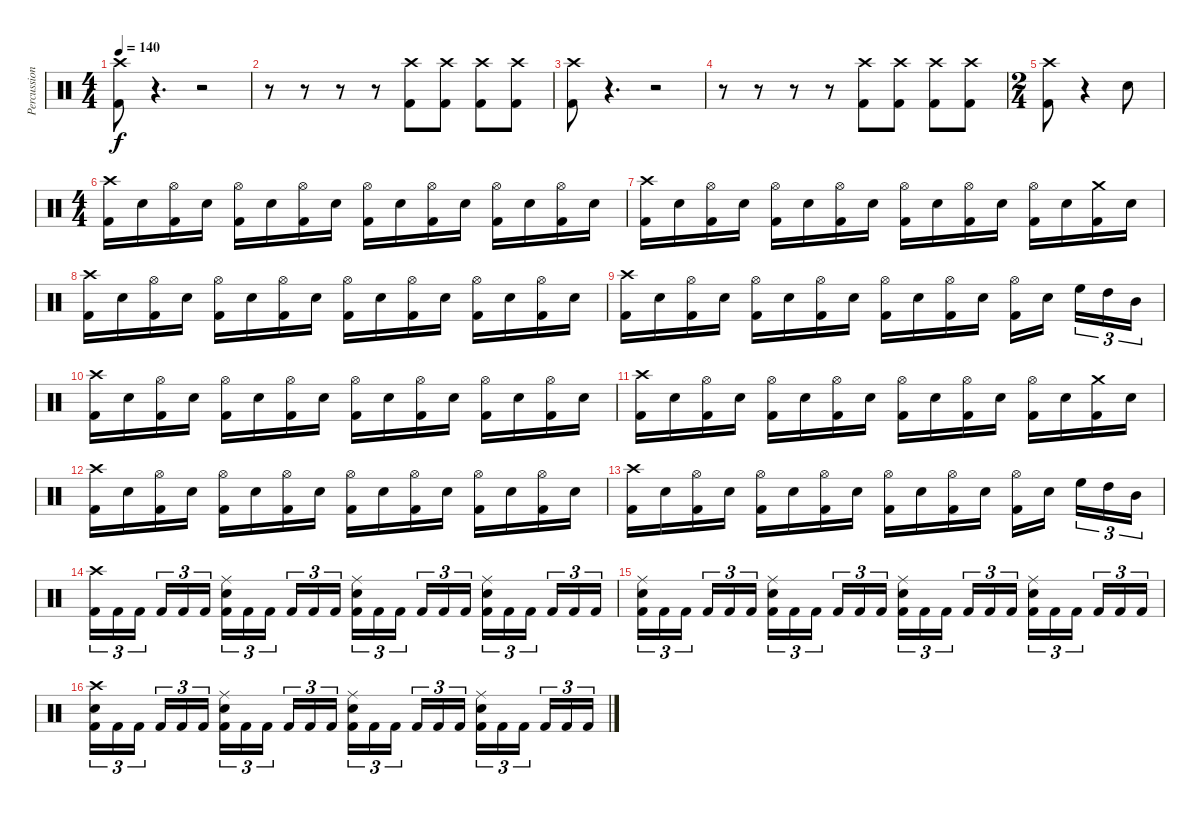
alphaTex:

\track ("Percussion" "Percussion") {instrument percussion}
\staff {score}
\articulation defaults
\ts (4 4)
\tempo 140
\clef neutral
\ks c
("Crash high (hit)" "Kick (hit) 2").8{dy f} r.4{d volume 0} r.2 |
r.8 r.8 r.8 r.8 ("Crash high (hit)" "Kick (hit) 2").8{volume 13} ("Crash high (hit)" "Kick (hit) 2").8 ("Crash high (hit)" "Kick (hit) 2").8 ("Crash high (hit)" "Kick (hit) 2").8 |
("Crash high (hit)" "Kick (hit) 2").8 r.4{d volume 0} r.2 |
r.8 r.8 r.8 r.8 ("Crash high (hit)" "Kick (hit) 2").8{volume 13} ("Crash high (hit)" "Kick (hit) 2").8 ("Crash high (hit)" "Kick (hit) 2").8 ("Crash high (hit)" "Kick (hit) 2").8 |
\ts (2 4)
("Crash high (hit)" "Kick (hit) 2").8 r.4{volume 0} "Electric Snare (hit)".8{volume 13} |
\ts (4 4)
("Crash high (hit)" "Kick (hit) 2").16 "Electric Snare (hit)".16 ("Hi-Hat (open)" "Kick (hit) 2").16 "Electric Snare (hit)".16 ("Hi-Hat (open)" "Kick (hit) 2").16 "Electric Snare (hit)".16 ("Hi-Hat (open)" "Kick (hit) 2").16 "Electric Snare (hit)".16 ("Hi-Hat (open)" "Kick (hit) 2").16 "Electric Snare (hit)".16 ("Hi-Hat (open)" "Kick (hit) 2").16 "Electric Snare (hit)".16 ("Hi-Hat (open)" "Kick (hit) 2").16 "Electric Snare (hit)".16 ("Hi-Hat (open)" "Kick (hit) 2").16 "Electric Snare (hit)".16 |
("Crash high (hit)" "Kick (hit) 2").16 "Electric Snare (hit)".16 ("Hi-Hat (open)" "Kick (hit) 2").16 "Electric Snare (hit)".16 ("Hi-Hat (open)" "Kick (hit) 2").16 "Electric Snare (hit)".16 ("Hi-Hat (open)" "Kick (hit) 2").16 "Electric Snare (hit)".16 ("Hi-Hat (open)" "Kick (hit) 2").16 "Electric Snare (hit)".16 ("Hi-Hat (open)" "Kick (hit) 2").16 "Electric Snare (hit)".16 ("Hi-Hat (open)" "Kick (hit) 2").16 "Electric Snare (hit)".16 ("Crash medium (hit)" "Kick (hit) 2").16 "Electric Snare (hit)".16 |
("Crash high (hit)" "Kick (hit) 2").16 "Electric Snare (hit)".16 ("Hi-Hat (open)" "Kick (hit) 2").16 "Electric Snare (hit)".16 ("Hi-Hat (open)" "Kick (hit) 2").16 "Electric Snare (hit)".16 ("Hi-Hat (open)" "Kick (hit) 2").16 "Electric Snare (hit)".16 ("Hi-Hat (open)" "Kick (hit) 2").16 "Electric Snare (hit)".16 ("Hi-Hat (open)" "Kick (hit) 2").16 "Electric Snare (hit)".16 ("Hi-Hat (open)" "Kick (hit) 2").16 "Electric Snare (hit)".16 ("Hi-Hat (open)" "Kick (hit) 2").16 "Electric Snare (hit)".16 |
("Crash high (hit)" "Kick (hit) 2").16 "Electric Snare (hit)".16 ("Hi-Hat (open)" "Kick (hit) 2").16 "Electric Snare (hit)".16 ("Hi-Hat (open)" "Kick (hit) 2").16 "Electric Snare (hit)".16 ("Hi-Hat (open)" "Kick (hit) 2").16 "Electric Snare (hit)".16 ("Hi-Hat (open)" "Kick (hit) 2").16 "Electric Snare (hit)".16 ("Hi-Hat (open)" "Kick (hit) 2").16 "Electric Snare (hit)".16 ("Hi-Hat (open)" "Kick (hit) 2").16 "Electric Snare (hit)".16 "High Floor Tom (hit)".16{tu (3 2)} "High Tom (hit)".16{tu (3 2)} "Mid Tom (hit)".16{tu (3 2)} |
("Crash high (hit)" "Kick (hit) 2").16 "Electric Snare (hit)".16 ("Hi-Hat (open)" "Kick (hit) 2").16 "Electric Snare (hit)".16 ("Hi-Hat (open)" "Kick (hit) 2").16 "Electric Snare (hit)".16 ("Hi-Hat (open)" "Kick (hit) 2").16 "Electric Snare (hit)".16 ("Hi-Hat (open)" "Kick (hit) 2").16 "Electric Snare (hit)".16 ("Hi-Hat (open)" "Kick (hit) 2").16 "Electric Snare (hit)".16 ("Hi-Hat (open)" "Kick (hit) 2").16 "Electric Snare (hit)".16 ("Hi-Hat (open)" "Kick (hit) 2").16 "Electric Snare (hit)".16 |
("Crash high (hit)" "Kick (hit) 2").16 "Electric Snare (hit)".16 ("Hi-Hat (open)" "Kick (hit) 2").16 "Electric Snare (hit)".16 ("Hi-Hat (open)" "Kick (hit) 2").16 "Electric Snare (hit)".16 ("Hi-Hat (open)" "Kick (hit) 2").16 "Electric Snare (hit)".16 ("Hi-Hat (open)" "Kick (hit) 2").16 "Electric Snare (hit)".16 ("Hi-Hat (open)" "Kick (hit) 2").16 "Electric Snare (hit)".16 ("Hi-Hat (open)" "Kick (hit) 2").16 "Electric Snare (hit)".16 ("Crash medium (hit)" "Kick (hit) 2").16 "Electric Snare (hit)".16 |
("Crash high (hit)" "Kick (hit) 2").16 "Electric Snare (hit)".16 ("Hi-Hat (open)" "Kick (hit) 2").16 "Electric Snare (hit)".16 ("Hi-Hat (open)" "Kick (hit) 2").16 "Electric Snare (hit)".16 ("Hi-Hat (open)" "Kick (hit) 2").16 "Electric Snare (hit)".16 ("Hi-Hat (open)" "Kick (hit) 2").16 "Electric Snare (hit)".16 ("Hi-Hat (open)" "Kick (hit) 2").16 "Electric Snare (hit)".16 ("Hi-Hat (open)" "Kick (hit) 2").16 "Electric Snare (hit)".16 ("Hi-Hat (open)" "Kick (hit) 2").16 "Electric Snare (hit)".16 |
("Crash high (hit)" "Kick (hit) 2").16 "Electric Snare (hit)".16 ("Hi-Hat (open)" "Kick (hit) 2").16 "Electric Snare (hit)".16 ("Hi-Hat (open)" "Kick (hit) 2").16 "Electric Snare (hit)".16 ("Hi-Hat (open)" "Kick (hit) 2").16 "Electric Snare (hit)".16 ("Hi-Hat (open)" "Kick (hit) 2").16 "Electric Snare (hit)".16 ("Hi-Hat (open)" "Kick (hit) 2").16 "Electric Snare (hit)".16 ("Hi-Hat (open)" "Kick (hit) 2").16 "Electric Snare (hit)".16 "High Floor Tom (hit)".16{tu (3 2)} "High Tom (hit)".16{tu (3 2)} "Mid Tom (hit)".16{tu (3 2)} |
("Crash high (hit)" "Kick (hit) 2").16{tu (3 2)} "Kick (hit) 2".16{tu (3 2)} "Kick (hit) 2".16{tu (3 2)} "Kick (hit) 2".16{tu (3 2)} "Kick (hit) 2".16{tu (3 2)} "Kick (hit) 2".16{tu (3 2)} ("Ride (middle)" "Electric Snare (hit)" "Kick (hit) 2").16{tu (3 2)} "Kick (hit) 2".16{tu (3 2)} "Kick (hit) 2".16{tu (3 2)} "Kick (hit) 2".16{tu (3 2)} "Kick (hit) 2".16{tu (3 2)} "Kick (hit) 2".16{tu (3 2)} ("Ride (middle)" "Electric Snare (hit)" "Kick (hit) 2").16{tu (3 2)} "Kick (hit) 2".16{tu (3 2)} "Kick (hit) 2".16{tu (3 2)} "Kick (hit) 2".16{tu (3 2)} "Kick (hit) 2".16{tu (3 2)} "Kick (hit) 2".16{tu (3 2)} ("Ride (middle)" "Electric Snare (hit)" "Kick (hit) 2").16{tu (3 2)} "Kick (hit) 2".16{tu (3 2)} "Kick (hit) 2".16{tu (3 2)} "Kick (hit) 2".16{tu (3 2)} "Kick (hit) 2".16{tu (3 2)} "Kick (hit) 2".16{tu (3 2)} |
("Ride (middle)" "Electric Snare (hit)" "Kick (hit) 2").16{tu (3 2)} "Kick (hit) 2".16{tu (3 2)} "Kick (hit) 2".16{tu (3 2)} "Kick (hit) 2".16{tu (3 2)} "Kick (hit) 2".16{tu (3 2)} "Kick (hit) 2".16{tu (3 2)} ("Ride (middle)" "Electric Snare (hit)" "Kick (hit) 2").16{tu (3 2)} "Kick (hit) 2".16{tu (3 2)} "Kick (hit) 2".16{tu (3 2)} "Kick (hit) 2".16{tu (3 2)} "Kick (hit) 2".16{tu (3 2)} "Kick (hit) 2".16{tu (3 2)} ("Ride (middle)" "Electric Snare (hit)" "Kick (hit) 2").16{tu (3 2)} "Kick (hit) 2".16{tu (3 2)} "Kick (hit) 2".16{tu (3 2)} "Kick (hit) 2".16{tu (3 2)} "Kick (hit) 2".16{tu (3 2)} "Kick (hit) 2".16{tu (3 2)} ("Ride (middle)" "Electric Snare (hit)" "Kick (hit) 2").16{tu (3 2)} "Kick (hit) 2".16{tu (3 2)} "Kick (hit) 2".16{tu (3 2)} "Kick (hit) 2".16{tu (3 2)} "Kick (hit) 2".16{tu (3 2)} "Kick (hit) 2".16{tu (3 2)} |
("Crash high (hit)" "Electric Snare (hit)" "Kick (hit) 2").16{tu (3 2)} "Kick (hit) 2".16{tu (3 2)} "Kick (hit) 2".16{tu (3 2)} "Kick (hit) 2".16{tu (3 2)} "Kick (hit) 2".16{tu (3 2)} "Kick (hit) 2".16{tu (3 2)} ("Ride (middle)" "Electric Snare (hit)" "Kick (hit) 2").16{tu (3 2)} "Kick (hit) 2".16{tu (3 2)} "Kick (hit) 2".16{tu (3 2)} "Kick (hit) 2".16{tu (3 2)} "Kick (hit) 2".16{tu (3 2)} "Kick (hit) 2".16{tu (3 2)} ("Ride (middle)" "Electric Snare (hit)" "Kick (hit) 2").16{tu (3 2)} "Kick (hit) 2".16{tu (3 2)} "Kick (hit) 2".16{tu (3 2)} "Kick (hit) 2".16{tu (3 2)} "Kick (hit) 2".16{tu (3 2)} "Kick (hit) 2".16{tu (3 2)} ("Ride (middle)" "Electric Snare (hit)" "Kick (hit) 2").16{tu (3 2)} "Kick (hit) 2".16{tu (3 2)} "Kick (hit) 2".16{tu (3 2)} "Kick (hit) 2".16{tu (3 2)} "Kick (hit) 2".16{tu (3 2)} "Kick (hit) 2".16{tu (3 2)}
